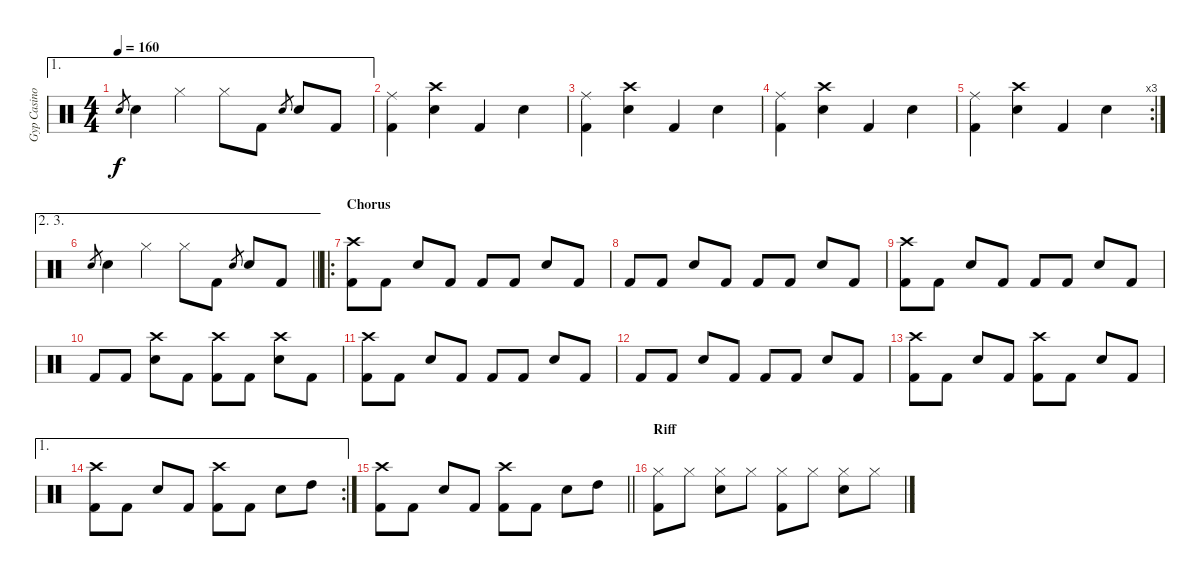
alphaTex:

\track ("Gyp Casino" "Gyp Casino") {instrument percussion}
\staff {score}
\articulation defaults
\ae 1
\ts (4 4)
\tempo 160
\clef neutral
\ks c "Electric Snare (hit)".8{gr dy f} "Electric Snare (hit)".4 "Hi-Hat (closed)".4 "Hi-Hat (closed)".8 "Kick (hit) 2".8 "Electric Snare (hit)".8{gr} "Electric Snare (hit)".8 "Kick (hit) 2".8
|
("Ride (middle)" "Kick (hit) 2").4 ("Crash high (hit)" "Snare (hit) 2").4 "Kick (hit) 2".4 "Snare (hit) 2".4 |
("Ride (middle)" "Kick (hit) 2").4 ("Crash high (hit)" "Snare (hit) 2").4 "Kick (hit) 2".4 "Snare (hit) 2".4 |
("Ride (middle)" "Kick (hit) 2").4 ("Crash high (hit)" "Snare (hit) 2").4 "Kick (hit) 2".4 "Snare (hit) 2".4 |
\rc 3
("Ride (middle)" "Kick (hit) 2").4 ("Crash high (hit)" "Snare (hit) 2").4 "Kick (hit) 2".4 "Snare (hit) 2".4 |
\ae (2 3)
\barLineRight lightlight "Electric Snare (hit)".8{gr} "Electric Snare (hit)".4 "Hi-Hat (closed)".4 "Hi-Hat (closed)".8 "Kick (hit) 2".8 "Electric Snare (hit)".8{gr} "Electric Snare (hit)".8 "Kick (hit) 2".8
|
\ro
\section ("" "Chorus")
("Crash high (hit)" "Kick (hit) 2").8 "Kick (hit) 2".8 "Snare (hit) 2".8 "Kick (hit) 2".8 "Kick (hit) 2".8 "Kick (hit) 2".8 "Snare (hit) 2".8 "Kick (hit) 2".8 |
"Kick (hit) 2".8 "Kick (hit) 2".8 "Snare (hit) 2".8 "Kick (hit) 2".8 "Kick (hit) 2".8 "Kick (hit) 2".8 "Snare (hit) 2".8 "Kick (hit) 2".8 |
("Crash high (hit)" "Kick (hit) 2").8 "Kick (hit) 2".8 "Snare (hit) 2".8 "Kick (hit) 2".8 "Kick (hit) 2".8 "Kick (hit) 2".8 "Snare (hit) 2".8 "Kick (hit) 2".8 |
"Kick (hit) 2".8 "Kick (hit) 2".8 ("Crash high (hit)" "Snare (hit) 2").8 "Kick (hit) 2".8 ("Crash high (hit)" "Kick (hit) 2").8 "Kick (hit) 2".8 ("Crash high (hit)" "Snare (hit) 2").8 "Kick (hit) 2".8 |
("Crash high (hit)" "Kick (hit) 2").8 "Kick (hit) 2".8 "Snare (hit) 2".8 "Kick (hit) 2".8 "Kick (hit) 2".8 "Kick (hit) 2".8 "Snare (hit) 2".8 "Kick (hit) 2".8 |
"Kick (hit) 2".8 "Kick (hit) 2".8 "Snare (hit) 2".8 "Kick (hit) 2".8 "Kick (hit) 2".8 "Kick (hit) 2".8 "Snare (hit) 2".8 "Kick (hit) 2".8 |
("Crash high (hit)" "Kick (hit) 2").8 "Kick (hit) 2".8 "Snare (hit) 2".8 "Kick (hit) 2".8 ("Crash high (hit)" "Kick (hit) 2").8 "Kick (hit) 2".8 "Snare (hit) 2".8 "Kick (hit) 2".8 |
\ae 1
\rc 2
("Crash high (hit)" "Kick (hit) 2").8 "Kick (hit) 2".8 "Snare (hit) 2".8 "Kick (hit) 2".8 ("Crash high (hit)" "Kick (hit) 2").8 "Kick (hit) 2".8 "Snare (hit) 2".8 "High Tom (hit)".8 |
\barLineRight lightlight
("Crash high (hit)" "Kick (hit) 2").8 "Kick (hit) 2".8 "Snare (hit) 2".8 "Kick (hit) 2".8 ("Crash high (hit)" "Kick (hit) 2").8 "Kick (hit) 2".8 "Snare (hit) 2".8 "High Tom (hit)".8 |
\section ("" "Riff")
("Hi-Hat (closed)" "Kick (hit) 2").8 "Hi-Hat (closed)".8 ("Hi-Hat (closed)" "Snare (hit) 2").8 "Hi-Hat (closed)".8 ("Hi-Hat (closed)" "Kick (hit) 2").8 "Hi-Hat (closed)".8 ("Hi-Hat (closed)" "Snare (hit) 2").8 "Hi-Hat (closed)".8
